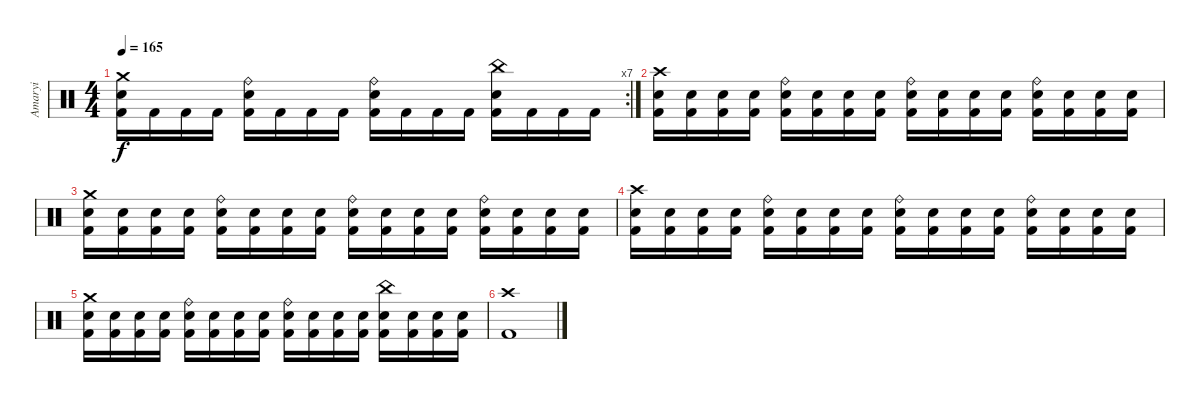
\track ("Amaryi" "Amaryi") {instrument percussion}
\staff {score}
\articulation defaults
\rc 7
\ts (4 4)
\tempo 165
\clef neutral
\ks c
("Crash medium (hit)" "Electric Snare (hit)" "Kick (hit) 2").16{dy f} "Kick (hit) 2".16 "Kick (hit) 2".16 "Kick (hit) 2".16 ("Ride (bell)" "Electric Snare (hit)" "Kick (hit) 2").16 "Kick (hit) 2".16 "Kick (hit) 2".16 "Kick (hit) 2".16 ("Ride (bell)" "Electric Snare (hit)" "Kick (hit) 2").16 "Kick (hit) 2".16 "Kick (hit) 2".16 "Kick (hit) 2".16 ("China (hit)" "Electric Snare (hit)" "Kick (hit) 2").16 "Kick (hit) 2".16 "Kick (hit) 2".16 "Kick (hit) 2".16 |
("Crash high (hit)" "Electric Snare (hit)" "Kick (hit) 2").16 ("Electric Snare (hit)" "Kick (hit) 2").16 ("Electric Snare (hit)" "Kick (hit) 2").16 ("Electric Snare (hit)" "Kick (hit) 2").16 ("Ride (bell)" "Electric Snare (hit)" "Kick (hit) 2").16 ("Electric Snare (hit)" "Kick (hit) 2").16 ("Electric Snare (hit)" "Kick (hit) 2").16 ("Electric Snare (hit)" "Kick (hit) 2").16 ("Ride (bell)" "Electric Snare (hit)" "Kick (hit) 2").16 ("Electric Snare (hit)" "Kick (hit) 2").16 ("Electric Snare (hit)" "Kick (hit) 2").16 ("Electric Snare (hit)" "Kick (hit) 2").16 ("Ride (bell)" "Electric Snare (hit)" "Kick (hit) 2").16 ("Electric Snare (hit)" "Kick (hit) 2").16 ("Electric Snare (hit)" "Kick (hit) 2").16 ("Electric Snare (hit)" "Kick (hit) 2").16 |
("Crash medium (hit)" "Electric Snare (hit)" "Kick (hit) 2").16 ("Electric Snare (hit)" "Kick (hit) 2").16 ("Electric Snare (hit)" "Kick (hit) 2").16 ("Electric Snare (hit)" "Kick (hit) 2").16 ("Ride (bell)" "Electric Snare (hit)" "Kick (hit) 2").16 ("Electric Snare (hit)" "Kick (hit) 2").16 ("Electric Snare (hit)" "Kick (hit) 2").16 ("Electric Snare (hit)" "Kick (hit) 2").16 ("Ride (bell)" "Electric Snare (hit)" "Kick (hit) 2").16 ("Electric Snare (hit)" "Kick (hit) 2").16 ("Electric Snare (hit)" "Kick (hit) 2").16 ("Electric Snare (hit)" "Kick (hit) 2").16 ("Ride (bell)" "Electric Snare (hit)" "Kick (hit) 2").16 ("Electric Snare (hit)" "Kick (hit) 2").16 ("Electric Snare (hit)" "Kick (hit) 2").16 ("Electric Snare (hit)" "Kick (hit) 2").16 |
("Crash high (hit)" "Electric Snare (hit)" "Kick (hit) 2").16 ("Electric Snare (hit)" "Kick (hit) 2").16 ("Electric Snare (hit)" "Kick (hit) 2").16 ("Electric Snare (hit)" "Kick (hit) 2").16 ("Ride (bell)" "Electric Snare (hit)" "Kick (hit) 2").16 ("Electric Snare (hit)" "Kick (hit) 2").16 ("Electric Snare (hit)" "Kick (hit) 2").16 ("Electric Snare (hit)" "Kick (hit) 2").16 ("Ride (bell)" "Electric Snare (hit)" "Kick (hit) 2").16 ("Electric Snare (hit)" "Kick (hit) 2").16 ("Electric Snare (hit)" "Kick (hit) 2").16 ("Electric Snare (hit)" "Kick (hit) 2").16 ("Ride (bell)" "Electric Snare (hit)" "Kick (hit) 2").16 ("Electric Snare (hit)" "Kick (hit) 2").16 ("Electric Snare (hit)" "Kick (hit) 2").16 ("Electric Snare (hit)" "Kick (hit) 2").16 |
("Crash medium (hit)" "Electric Snare (hit)" "Kick (hit) 2").16 ("Electric Snare (hit)" "Kick (hit) 2").16 ("Electric Snare (hit)" "Kick (hit) 2").16 ("Electric Snare (hit)" "Kick (hit) 2").16 ("Ride (bell)" "Electric Snare (hit)" "Kick (hit) 2").16 ("Electric Snare (hit)" "Kick (hit) 2").16 ("Electric Snare (hit)" "Kick (hit) 2").16 ("Electric Snare (hit)" "Kick (hit) 2").16 ("Ride (bell)" "Electric Snare (hit)" "Kick (hit) 2").16 ("Electric Snare (hit)" "Kick (hit) 2").16 ("Electric Snare (hit)" "Kick (hit) 2").16 ("Electric Snare (hit)" "Kick (hit) 2").16 ("China (hit)" "Electric Snare (hit)" "Kick (hit) 2").16 ("Electric Snare (hit)" "Kick (hit) 2").16 ("Electric Snare (hit)" "Kick (hit) 2").16 ("Electric Snare (hit)" "Kick (hit) 2").16 |
("Crash high (hit)" "Kick (hit) 2").1
